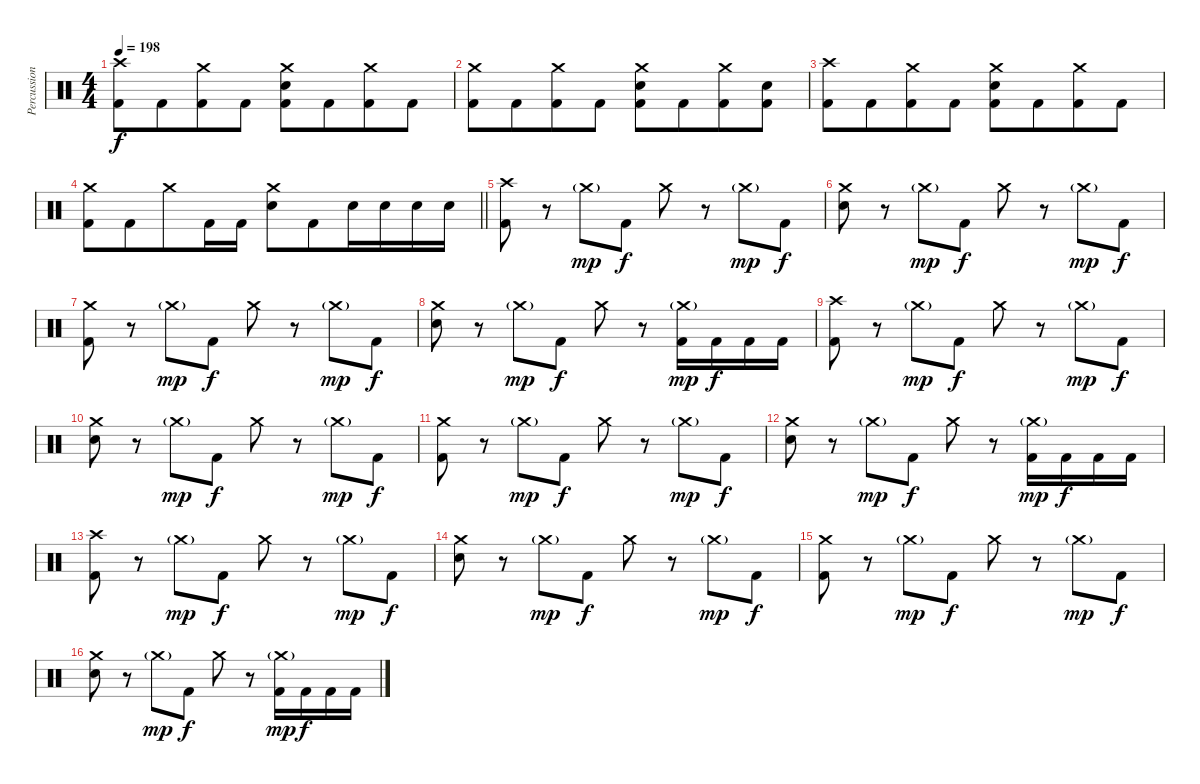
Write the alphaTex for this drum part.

\track ("Percussion" "Percussion") {instrument percussion}
\staff {score}
\articulation defaults
\ts (4 4)
\tempo 198
\clef neutral
\ks c
("Crash high (hit)" "Kick (hit) 2").8{dy f} "Kick (hit) 2".8{beam merge} ("Crash medium (hit)" "Kick (hit) 2").8 "Kick (hit) 2".8 ("Crash medium (hit)" "Electric Snare (hit)" "Kick (hit) 2").8 "Kick (hit) 2".8{beam merge} ("Crash medium (hit)" "Kick (hit) 2").8 "Kick (hit) 2".8 |
("Crash medium (hit)" "Kick (hit) 2").8 "Kick (hit) 2".8{beam merge} ("Crash medium (hit)" "Kick (hit) 2").8 "Kick (hit) 2".8 ("Crash medium (hit)" "Electric Snare (hit)" "Kick (hit) 2").8 "Kick (hit) 2".8{beam merge} ("Crash medium (hit)" "Kick (hit) 2").8 ("Electric Snare (hit)" "Kick (hit) 2").8 |
("Crash high (hit)" "Kick (hit) 2").8 "Kick (hit) 2".8{beam merge} ("Crash medium (hit)" "Kick (hit) 2").8 "Kick (hit) 2".8 ("Crash medium (hit)" "Electric Snare (hit)" "Kick (hit) 2").8 "Kick (hit) 2".8{beam merge} ("Crash medium (hit)" "Kick (hit) 2").8 "Kick (hit) 2".8 |
\barLineRight lightlight
("Crash medium (hit)" "Kick (hit) 2").8 "Kick (hit) 2".8{beam merge} "Crash medium (hit)".8 "Kick (hit) 2".16 "Kick (hit) 2".16 ("Crash medium (hit)" "Electric Snare (hit)").8 "Kick (hit) 2".8{beam merge} "Electric Snare (hit)".16 "Electric Snare (hit)".16 "Electric Snare (hit)".16{beam merge} "Electric Snare (hit)".16 |
\section ("" "")
("Crash high (hit)" "Kick (hit) 2").8 r.8 "Crash medium (hit)"{g}.8{dy mp} "Kick (hit) 2".8{dy f} "Crash medium (hit)".8 r.8{beam merge} "Crash medium (hit)"{g}.8{dy mp} "Kick (hit) 2".8{dy f} |
("Crash medium (hit)" "Electric Snare (hit)").8 r.8 "Crash medium (hit)"{g}.8{dy mp} "Kick (hit) 2".8{dy f} "Crash medium (hit)".8 r.8{beam merge} "Crash medium (hit)"{g}.8{dy mp} "Kick (hit) 2".8{dy f} |
("Crash medium (hit)" "Kick (hit) 2").8 r.8 "Crash medium (hit)"{g}.8{dy mp} "Kick (hit) 2".8{dy f} "Crash medium (hit)".8 r.8{beam merge} "Crash medium (hit)"{g}.8{dy mp} "Kick (hit) 2".8{dy f} |
("Crash medium (hit)" "Electric Snare (hit)").8 r.8 "Crash medium (hit)"{g}.8{dy mp} "Kick (hit) 2".8{dy f} "Crash medium (hit)".8 r.8{beam merge} ("Crash medium (hit)"{g} "Kick (hit) 2").16{dy mp} "Kick (hit) 2".16{dy f} "Kick (hit) 2".16{beam merge} "Kick (hit) 2".16 |
("Crash high (hit)" "Kick (hit) 2").8 r.8 "Crash medium (hit)"{g}.8{dy mp} "Kick (hit) 2".8{dy f} "Crash medium (hit)".8 r.8{beam merge} "Crash medium (hit)"{g}.8{dy mp} "Kick (hit) 2".8{dy f} |
("Crash medium (hit)" "Electric Snare (hit)").8 r.8 "Crash medium (hit)"{g}.8{dy mp} "Kick (hit) 2".8{dy f} "Crash medium (hit)".8 r.8{beam merge} "Crash medium (hit)"{g}.8{dy mp} "Kick (hit) 2".8{dy f} |
("Crash medium (hit)" "Kick (hit) 2").8 r.8 "Crash medium (hit)"{g}.8{dy mp} "Kick (hit) 2".8{dy f} "Crash medium (hit)".8 r.8{beam merge} "Crash medium (hit)"{g}.8{dy mp} "Kick (hit) 2".8{dy f} |
("Crash medium (hit)" "Electric Snare (hit)").8 r.8 "Crash medium (hit)"{g}.8{dy mp} "Kick (hit) 2".8{dy f} "Crash medium (hit)".8 r.8{beam merge} ("Crash medium (hit)"{g} "Kick (hit) 2").16{dy mp} "Kick (hit) 2".16{dy f} "Kick (hit) 2".16{beam merge} "Kick (hit) 2".16 |
("Crash high (hit)" "Kick (hit) 2").8 r.8 "Crash medium (hit)"{g}.8{dy mp} "Kick (hit) 2".8{dy f} "Crash medium (hit)".8 r.8{beam merge} "Crash medium (hit)"{g}.8{dy mp} "Kick (hit) 2".8{dy f} |
("Crash medium (hit)" "Electric Snare (hit)").8 r.8 "Crash medium (hit)"{g}.8{dy mp} "Kick (hit) 2".8{dy f} "Crash medium (hit)".8 r.8{beam merge} "Crash medium (hit)"{g}.8{dy mp} "Kick (hit) 2".8{dy f} |
("Crash medium (hit)" "Kick (hit) 2").8 r.8 "Crash medium (hit)"{g}.8{dy mp} "Kick (hit) 2".8{dy f} "Crash medium (hit)".8 r.8{beam merge} "Crash medium (hit)"{g}.8{dy mp} "Kick (hit) 2".8{dy f} |
("Crash medium (hit)" "Electric Snare (hit)").8 r.8 "Crash medium (hit)"{g}.8{dy mp} "Kick (hit) 2".8{dy f} "Crash medium (hit)".8 r.8{beam merge} ("Crash medium (hit)"{g} "Kick (hit) 2").16{dy mp} "Kick (hit) 2".16{dy f} "Kick (hit) 2".16{beam merge} "Kick (hit) 2".16
